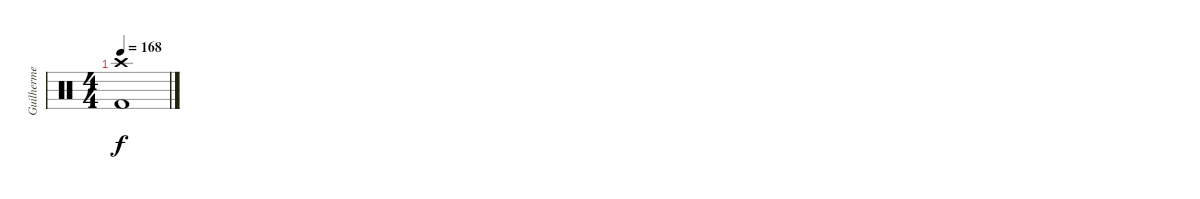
\track ("Guilherme" "Guilherme") {instrument percussion}
\staff {score}
\articulation defaults
\ts (4 4)
\tempo 168
\clef neutral
\ks c
("Crash high (hit)" "Kick (hit) 2").1{dy f}
